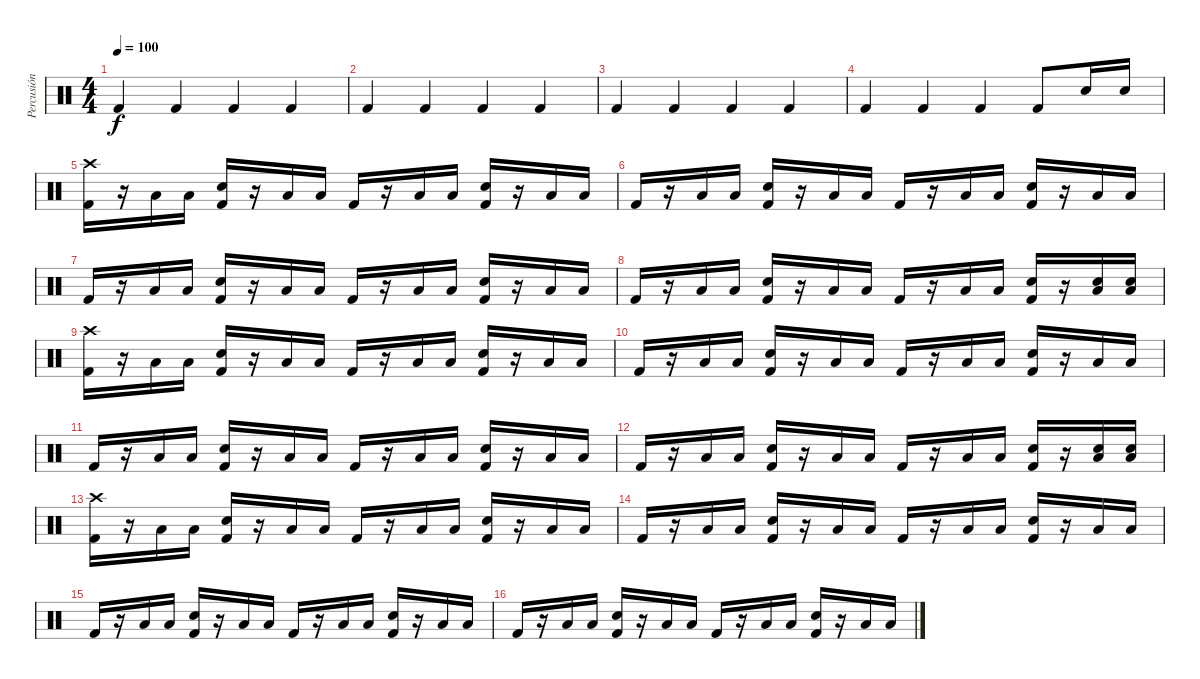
\track ("Percusión" "Percusión") {instrument percussion}
\staff {score}
\articulation defaults
\ts (4 4)
\tempo 100
\clef neutral
\ks c "Kick (hit) 2".4{dy f} "Kick (hit) 2".4 "Kick (hit) 2".4 "Kick (hit) 2".4
|
"Kick (hit) 2".4 "Kick (hit) 2".4 "Kick (hit) 2".4 "Kick (hit) 2".4 |
"Kick (hit) 2".4 "Kick (hit) 2".4 "Kick (hit) 2".4 "Kick (hit) 2".4 |
"Kick (hit) 2".4 "Kick (hit) 2".4 "Kick (hit) 2".4 "Kick (hit) 2".8 "Snare (hit) 2".16 "Snare (hit) 2".16 |
("Kick (hit) 2" "Crash high (hit)").16 r.16 "Low Tom (hit)".16 "Low Tom (hit)".16 ("Kick (hit) 2" "Snare (hit) 2").16 r.16 "Low Tom (hit)".16 "Low Tom (hit)".16 "Kick (hit) 2".16 r.16 "Low Tom (hit)".16 "Low Tom (hit)".16 ("Kick (hit) 2" "Snare (hit) 2").16 r.16 "Low Tom (hit)".16 "Low Tom (hit)".16 |
"Kick (hit) 2".16 r.16 "Low Tom (hit)".16 "Low Tom (hit)".16 ("Kick (hit) 2" "Snare (hit) 2").16 r.16 "Low Tom (hit)".16 "Low Tom (hit)".16 "Kick (hit) 2".16 r.16 "Low Tom (hit)".16 "Low Tom (hit)".16 ("Kick (hit) 2" "Snare (hit) 2").16 r.16 "Low Tom (hit)".16 "Low Tom (hit)".16 |
"Kick (hit) 2".16 r.16 "Low Tom (hit)".16 "Low Tom (hit)".16 ("Kick (hit) 2" "Snare (hit) 2").16 r.16 "Low Tom (hit)".16 "Low Tom (hit)".16 "Kick (hit) 2".16 r.16 "Low Tom (hit)".16 "Low Tom (hit)".16 ("Kick (hit) 2" "Snare (hit) 2").16 r.16 "Low Tom (hit)".16 "Low Tom (hit)".16 |
"Kick (hit) 2".16 r.16 "Low Tom (hit)".16 "Low Tom (hit)".16 ("Kick (hit) 2" "Snare (hit) 2").16 r.16 "Low Tom (hit)".16 "Low Tom (hit)".16 "Kick (hit) 2".16 r.16 "Low Tom (hit)".16 "Low Tom (hit)".16 ("Kick (hit) 2" "Snare (hit) 2").16 r.16 ("Low Tom (hit)" "Snare (hit) 2").16 ("Low Tom (hit)" "Snare (hit) 2").16 |
("Kick (hit) 2" "Crash high (hit)").16 r.16 "Low Tom (hit)".16 "Low Tom (hit)".16 ("Kick (hit) 2" "Snare (hit) 2").16 r.16 "Low Tom (hit)".16 "Low Tom (hit)".16 "Kick (hit) 2".16 r.16 "Low Tom (hit)".16 "Low Tom (hit)".16 ("Kick (hit) 2" "Snare (hit) 2").16 r.16 "Low Tom (hit)".16 "Low Tom (hit)".16 |
"Kick (hit) 2".16 r.16 "Low Tom (hit)".16 "Low Tom (hit)".16 ("Kick (hit) 2" "Snare (hit) 2").16 r.16 "Low Tom (hit)".16 "Low Tom (hit)".16 "Kick (hit) 2".16 r.16 "Low Tom (hit)".16 "Low Tom (hit)".16 ("Kick (hit) 2" "Snare (hit) 2").16 r.16 "Low Tom (hit)".16 "Low Tom (hit)".16 |
"Kick (hit) 2".16 r.16 "Low Tom (hit)".16 "Low Tom (hit)".16 ("Kick (hit) 2" "Snare (hit) 2").16 r.16 "Low Tom (hit)".16 "Low Tom (hit)".16 "Kick (hit) 2".16 r.16 "Low Tom (hit)".16 "Low Tom (hit)".16 ("Kick (hit) 2" "Snare (hit) 2").16 r.16 "Low Tom (hit)".16 "Low Tom (hit)".16 |
"Kick (hit) 2".16 r.16 "Low Tom (hit)".16 "Low Tom (hit)".16 ("Kick (hit) 2" "Snare (hit) 2").16 r.16 "Low Tom (hit)".16 "Low Tom (hit)".16 "Kick (hit) 2".16 r.16 "Low Tom (hit)".16 "Low Tom (hit)".16 ("Kick (hit) 2" "Snare (hit) 2").16 r.16 ("Low Tom (hit)" "Snare (hit) 2").16 ("Low Tom (hit)" "Snare (hit) 2").16 |
("Kick (hit) 2" "Crash high (hit)").16 r.16 "Low Tom (hit)".16 "Low Tom (hit)".16 ("Kick (hit) 2" "Snare (hit) 2").16 r.16 "Low Tom (hit)".16 "Low Tom (hit)".16 "Kick (hit) 2".16 r.16 "Low Tom (hit)".16 "Low Tom (hit)".16 ("Kick (hit) 2" "Snare (hit) 2").16 r.16 "Low Tom (hit)".16 "Low Tom (hit)".16 |
"Kick (hit) 2".16 r.16 "Low Tom (hit)".16 "Low Tom (hit)".16 ("Kick (hit) 2" "Snare (hit) 2").16 r.16 "Low Tom (hit)".16 "Low Tom (hit)".16 "Kick (hit) 2".16 r.16 "Low Tom (hit)".16 "Low Tom (hit)".16 ("Kick (hit) 2" "Snare (hit) 2").16 r.16 "Low Tom (hit)".16 "Low Tom (hit)".16 |
"Kick (hit) 2".16 r.16 "Low Tom (hit)".16 "Low Tom (hit)".16 ("Kick (hit) 2" "Snare (hit) 2").16 r.16 "Low Tom (hit)".16 "Low Tom (hit)".16 "Kick (hit) 2".16 r.16 "Low Tom (hit)".16 "Low Tom (hit)".16 ("Kick (hit) 2" "Snare (hit) 2").16 r.16 "Low Tom (hit)".16 "Low Tom (hit)".16 |
"Kick (hit) 2".16 r.16 "Low Tom (hit)".16 "Low Tom (hit)".16 ("Kick (hit) 2" "Snare (hit) 2").16 r.16 "Low Tom (hit)".16 "Low Tom (hit)".16 "Kick (hit) 2".16 r.16 "Low Tom (hit)".16 "Low Tom (hit)".16 ("Kick (hit) 2" "Snare (hit) 2").16 r.16 "Low Tom (hit)".16 "Low Tom (hit)".16
